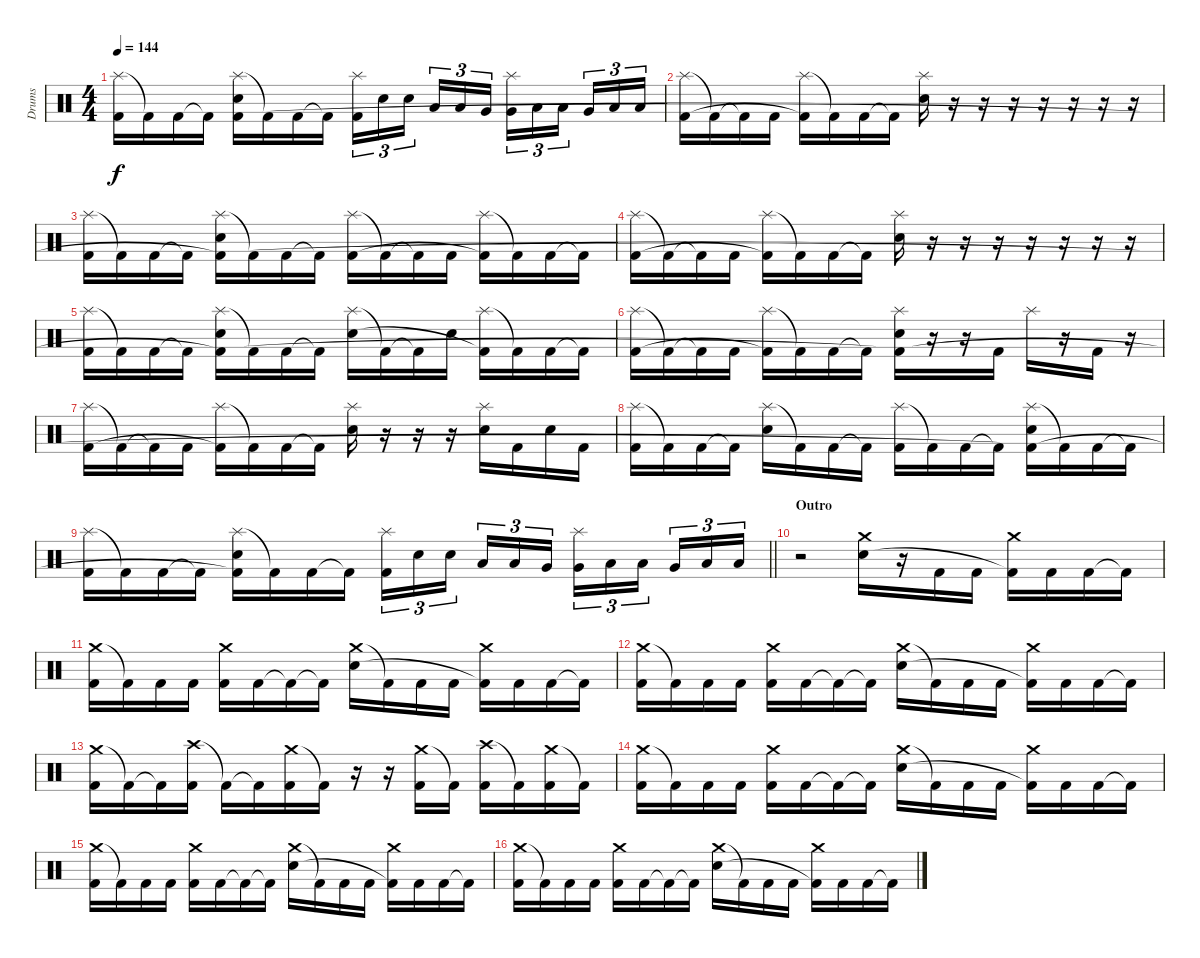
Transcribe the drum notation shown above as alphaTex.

\track ("Drums" "Drums") {instrument percussion}
\staff {score}
\articulation defaults
\ts (4 4)
\tempo 144
\clef neutral
\ks c
("Splash (hit)" "Kick (hit) 2").16{dy f} "Kick (hit) 2"{t}.16 "Kick (hit) 2".16 "Kick (hit) 2"{t}.16 ("Splash (hit)" "Electric Snare (hit)" "Kick (hit) 2"{t}).16 "Kick (hit) 2"{t}.16 "Kick (hit) 2".16 "Kick (hit) 2"{t}.16 ("Splash (hit)" "Kick (hit) 2").16{tu (3 2)} "Electric Snare (hit)".16{tu (3 2)} "Electric Snare (hit)".16{tu (3 2) beam splitsecondary} "Low Tom (hit)".16{tu (3 2)} "Low Tom (hit)".16{tu (3 2)} "Very Low Tom (hit)".16{tu (3 2)} ("Splash (hit)" "Very Low Tom (hit)").16{tu (3 2)} "Low Floor Tom (hit)".16{tu (3 2)} "Low Floor Tom (hit)".16{tu (3 2) beam splitsecondary} "Very Low Tom (hit)".16{tu (3 2)} "Low Floor Tom (hit)".16{tu (3 2)} "Low Floor Tom (hit)".16{tu (3 2)} |
("Splash (hit)" "Kick (hit) 2").16 "Kick (hit) 2"{t}.16 "Kick (hit) 2"{t}.16 "Kick (hit) 2".16 ("Splash (hit)" "Kick (hit) 2"{t}).16 "Kick (hit) 2"{t}.16 "Kick (hit) 2".16 "Kick (hit) 2"{t}.16 ("Splash (hit)" "Electric Snare (hit)").16 r.16 r.16 r.16 r.16 r.16 r.16 r.16 |
("Splash (hit)" "Kick (hit) 2").16 "Kick (hit) 2"{t}.16 "Kick (hit) 2".16 "Kick (hit) 2"{t}.16 ("Splash (hit)" "Electric Snare (hit)" "Kick (hit) 2"{t}).16 "Kick (hit) 2"{t}.16 "Kick (hit) 2".16 "Kick (hit) 2"{t}.16 ("Splash (hit)" "Kick (hit) 2").16 "Kick (hit) 2"{t}.16 "Kick (hit) 2"{t}.16 "Kick (hit) 2".16 ("Splash (hit)" "Kick (hit) 2"{t}).16 "Kick (hit) 2"{t}.16 "Kick (hit) 2".16 "Kick (hit) 2"{t}.16 |
("Splash (hit)" "Kick (hit) 2").16 "Kick (hit) 2"{t}.16 "Kick (hit) 2"{t}.16 "Kick (hit) 2".16 ("Splash (hit)" "Kick (hit) 2"{t}).16 "Kick (hit) 2"{t}.16 "Kick (hit) 2".16 "Kick (hit) 2"{t}.16 ("Splash (hit)" "Electric Snare (hit)").16 r.16 r.16 r.16 r.16 r.16 r.16 r.16 |
("Splash (hit)" "Kick (hit) 2").16 "Kick (hit) 2"{t}.16 "Kick (hit) 2".16 "Kick (hit) 2"{t}.16 ("Splash (hit)" "Electric Snare (hit)" "Kick (hit) 2"{t}).16 "Kick (hit) 2"{t}.16 "Kick (hit) 2".16 "Kick (hit) 2"{t}.16 ("Splash (hit)" "Electric Snare (hit)").16 "Kick (hit) 2"{t}.16 "Kick (hit) 2"{t}.16 "Electric Snare (hit)".16 ("Splash (hit)" "Kick (hit) 2"{t}).16 "Kick (hit) 2"{t}.16 "Kick (hit) 2".16 "Kick (hit) 2"{t}.16 |
("Splash (hit)" "Kick (hit) 2").16 "Kick (hit) 2"{t}.16 "Kick (hit) 2"{t}.16 "Kick (hit) 2".16 ("Splash (hit)" "Kick (hit) 2"{t}).16 "Kick (hit) 2"{t}.16 "Kick (hit) 2".16 "Kick (hit) 2"{t}.16 ("Splash (hit)" "Electric Snare (hit)" "Kick (hit) 2"{t}).16 r.16 r.16 "Kick (hit) 2".16 "Splash (hit)".16 r.16 "Kick (hit) 2".16 r.16 |
("Splash (hit)" "Kick (hit) 2").16 "Kick (hit) 2"{t}.16 "Kick (hit) 2"{t}.16 "Kick (hit) 2".16 ("Splash (hit)" "Kick (hit) 2"{t}).16 "Kick (hit) 2"{t}.16 "Kick (hit) 2".16 "Kick (hit) 2"{t}.16 ("Splash (hit)" "Electric Snare (hit)").16 r.16 r.16 r.16 ("Splash (hit)" "Electric Snare (hit)").16 "Kick (hit) 2".16 "Electric Snare (hit)".16 "Kick (hit) 2".16 |
("Splash (hit)" "Kick (hit) 2").16 "Kick (hit) 2"{t}.16 "Kick (hit) 2".16 "Kick (hit) 2"{t}.16 ("Splash (hit)" "Electric Snare (hit)").16 "Kick (hit) 2"{t}.16 "Kick (hit) 2".16 "Kick (hit) 2"{t}.16 ("Splash (hit)" "Kick (hit) 2").16 "Kick (hit) 2"{t}.16 "Kick (hit) 2".16 "Kick (hit) 2"{t}.16 ("Splash (hit)" "Electric Snare (hit)" "Kick (hit) 2"{t}).16 "Kick (hit) 2"{t}.16 "Kick (hit) 2".16 "Kick (hit) 2"{t}.16 |
\barLineRight lightlight
("Splash (hit)" "Kick (hit) 2").16 "Kick (hit) 2"{t}.16 "Kick (hit) 2".16 "Kick (hit) 2"{t}.16 ("Splash (hit)" "Electric Snare (hit)" "Kick (hit) 2"{t}).16 "Kick (hit) 2"{t}.16 "Kick (hit) 2".16 "Kick (hit) 2"{t}.16 ("Splash (hit)" "Kick (hit) 2").16{tu (3 2)} "Electric Snare (hit)".16{tu (3 2)} "Electric Snare (hit)".16{tu (3 2) beam splitsecondary} "Low Tom (hit)".16{tu (3 2)} "Low Tom (hit)".16{tu (3 2)} "Very Low Tom (hit)".16{tu (3 2)} ("Splash (hit)" "Very Low Tom (hit)").16{tu (3 2)} "Low Floor Tom (hit)".16{tu (3 2)} "Low Floor Tom (hit)".16{tu (3 2) beam splitsecondary} "Very Low Tom (hit)".16{tu (3 2)} "Low Floor Tom (hit)".16{tu (3 2)} "Low Floor Tom (hit)".16{tu (3 2)} |
\section ("" "Outro")
r.2 ("Crash medium (hit)" "Electric Snare (hit)").16 r.16 "Kick (hit) 2".16 "Kick (hit) 2".16 ("Crash medium (hit)" "Kick (hit) 2"{t}).16 "Kick (hit) 2".16 "Kick (hit) 2".16 "Kick (hit) 2"{t}.16 |
("Crash medium (hit)" "Kick (hit) 2").16 "Kick (hit) 2"{t}.16 "Kick (hit) 2".16 "Kick (hit) 2".16 ("Crash medium (hit)" "Kick (hit) 2").16 "Kick (hit) 2".16 "Kick (hit) 2"{t}.16 "Kick (hit) 2"{t}.16 ("Crash medium (hit)" "Electric Snare (hit)").16 "Kick (hit) 2"{t}.16 "Kick (hit) 2".16 "Kick (hit) 2".16 ("Crash medium (hit)" "Kick (hit) 2"{t}).16 "Kick (hit) 2".16 "Kick (hit) 2".16 "Kick (hit) 2"{t}.16 |
("Crash medium (hit)" "Kick (hit) 2").16 "Kick (hit) 2"{t}.16 "Kick (hit) 2".16 "Kick (hit) 2".16 ("Crash medium (hit)" "Kick (hit) 2").16 "Kick (hit) 2".16 "Kick (hit) 2"{t}.16 "Kick (hit) 2"{t}.16 ("Crash medium (hit)" "Electric Snare (hit)").16 "Kick (hit) 2"{t}.16 "Kick (hit) 2".16 "Kick (hit) 2".16 ("Crash medium (hit)" "Kick (hit) 2"{t}).16 "Kick (hit) 2".16 "Kick (hit) 2".16 "Kick (hit) 2"{t}.16 |
("Crash medium (hit)" "Kick (hit) 2").16 "Kick (hit) 2"{t}.16 "Kick (hit) 2"{t}.16 ("Crash high (hit)" "Kick (hit) 2").16 "Kick (hit) 2"{t}.16 "Kick (hit) 2"{t}.16 ("Crash medium (hit)" "Kick (hit) 2").16 "Kick (hit) 2"{t}.16 r.16 r.16 ("Crash medium (hit)" "Kick (hit) 2").16 "Kick (hit) 2"{t}.16 ("Crash high (hit)" "Kick (hit) 2").16 "Kick (hit) 2"{t}.16 ("Crash medium (hit)" "Kick (hit) 2").16 "Kick (hit) 2"{t}.16 |
("Crash medium (hit)" "Kick (hit) 2").16 "Kick (hit) 2"{t}.16 "Kick (hit) 2".16 "Kick (hit) 2".16 ("Crash medium (hit)" "Kick (hit) 2").16 "Kick (hit) 2".16 "Kick (hit) 2"{t}.16 "Kick (hit) 2"{t}.16 ("Crash medium (hit)" "Electric Snare (hit)").16 "Kick (hit) 2"{t}.16 "Kick (hit) 2".16 "Kick (hit) 2".16 ("Crash medium (hit)" "Kick (hit) 2"{t}).16 "Kick (hit) 2".16 "Kick (hit) 2".16 "Kick (hit) 2"{t}.16 |
("Crash medium (hit)" "Kick (hit) 2").16 "Kick (hit) 2"{t}.16 "Kick (hit) 2".16 "Kick (hit) 2".16 ("Crash medium (hit)" "Kick (hit) 2").16 "Kick (hit) 2".16 "Kick (hit) 2"{t}.16 "Kick (hit) 2"{t}.16 ("Crash medium (hit)" "Electric Snare (hit)").16 "Kick (hit) 2"{t}.16 "Kick (hit) 2".16 "Kick (hit) 2".16 ("Crash medium (hit)" "Kick (hit) 2"{t}).16 "Kick (hit) 2".16 "Kick (hit) 2".16 "Kick (hit) 2"{t}.16 |
("Crash medium (hit)" "Kick (hit) 2").16 "Kick (hit) 2"{t}.16 "Kick (hit) 2".16 "Kick (hit) 2".16 ("Crash medium (hit)" "Kick (hit) 2").16 "Kick (hit) 2".16 "Kick (hit) 2"{t}.16 "Kick (hit) 2"{t}.16 ("Crash medium (hit)" "Electric Snare (hit)").16 "Kick (hit) 2"{t}.16 "Kick (hit) 2".16 "Kick (hit) 2".16 ("Crash medium (hit)" "Kick (hit) 2"{t}).16 "Kick (hit) 2".16 "Kick (hit) 2".16 "Kick (hit) 2"{t}.16
